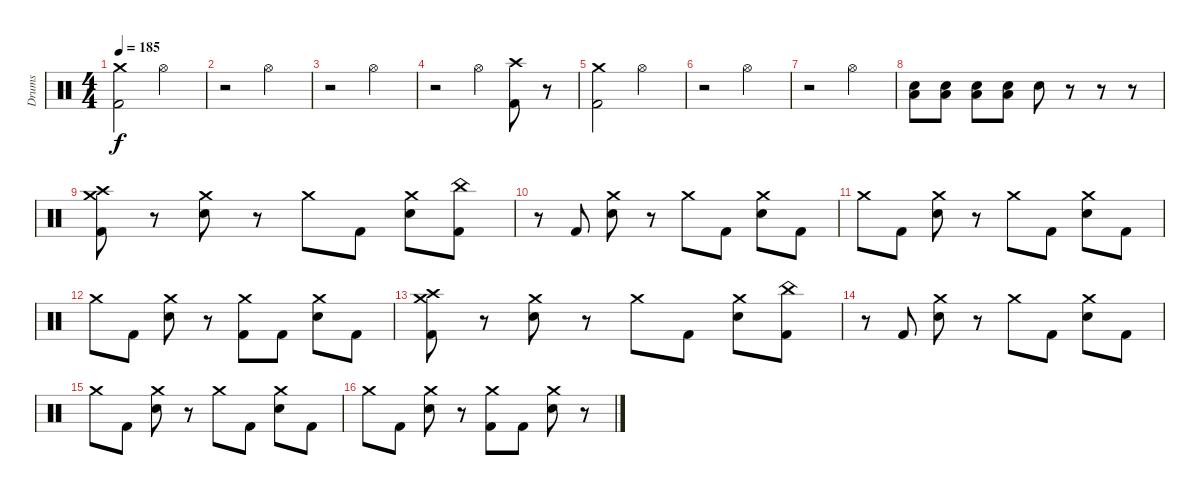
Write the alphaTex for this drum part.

\track ("Drums" "Drums") {instrument percussion}
\staff {score}
\articulation defaults
\ts (4 4)
\tempo 185
\clef neutral
\ks c
("Crash medium (hit)" "Kick (hit) 2").2{dy f} "Hi-Hat (open)".2 |
r.2 "Hi-Hat (open)".2 |
r.2 "Hi-Hat (open)".2 |
r.2 "Hi-Hat (open)".4 ("Crash high (hit)" "Kick (hit) 2").8 r.8 |
("Crash medium (hit)" "Kick (hit) 2").2 "Hi-Hat (open)".2 |
r.2 "Hi-Hat (open)".2 |
r.2 "Hi-Hat (open)".2 |
("Snare (hit) 2" "Low Tom (hit)").8 ("Snare (hit) 2" "Low Tom (hit)").8 ("Snare (hit) 2" "Low Tom (hit)").8 ("Snare (hit) 2" "Low Tom (hit)").8 "Snare (hit) 2".8 r.8 r.8 r.8 |
("Crash medium (hit)" "Crash high (hit)" "Kick (hit) 2").8 r.8 ("Crash medium (hit)" "Snare (hit) 2").8 r.8 "Crash medium (hit)".8 "Kick (hit) 2".8 ("Crash medium (hit)" "Snare (hit) 2").8 ("China (hit)" "Kick (hit) 2").8 |
r.8 "Kick (hit) 2".8 ("Crash medium (hit)" "Snare (hit) 2").8 r.8 "Crash medium (hit)".8 "Kick (hit) 2".8 ("Crash medium (hit)" "Snare (hit) 2").8 "Kick (hit) 2".8 |
"Crash medium (hit)".8 "Kick (hit) 2".8 ("Crash medium (hit)" "Snare (hit) 2").8 r.8 "Crash medium (hit)".8 "Kick (hit) 2".8 ("Crash medium (hit)" "Snare (hit) 2").8 "Kick (hit) 2".8 |
"Crash medium (hit)".8 "Kick (hit) 2".8 ("Crash medium (hit)" "Snare (hit) 2").8 r.8 ("Crash medium (hit)" "Kick (hit) 2").8 "Kick (hit) 2".8 ("Crash medium (hit)" "Snare (hit) 2").8 "Kick (hit) 2".8 |
("Crash medium (hit)" "Crash high (hit)" "Kick (hit) 2").8 r.8 ("Crash medium (hit)" "Snare (hit) 2").8 r.8 "Crash medium (hit)".8 "Kick (hit) 2".8 ("Crash medium (hit)" "Snare (hit) 2").8 ("China (hit)" "Kick (hit) 2").8 |
r.8 "Kick (hit) 2".8 ("Crash medium (hit)" "Snare (hit) 2").8 r.8 "Crash medium (hit)".8 "Kick (hit) 2".8 ("Crash medium (hit)" "Snare (hit) 2").8 "Kick (hit) 2".8 |
"Crash medium (hit)".8 "Kick (hit) 2".8 ("Crash medium (hit)" "Snare (hit) 2").8 r.8 "Crash medium (hit)".8 "Kick (hit) 2".8 ("Crash medium (hit)" "Snare (hit) 2").8 "Kick (hit) 2".8 |
"Crash medium (hit)".8 "Kick (hit) 2".8 ("Crash medium (hit)" "Snare (hit) 2").8 r.8 ("Crash medium (hit)" "Kick (hit) 2").8 "Kick (hit) 2".8 ("Crash medium (hit)" "Snare (hit) 2").8 r.8
